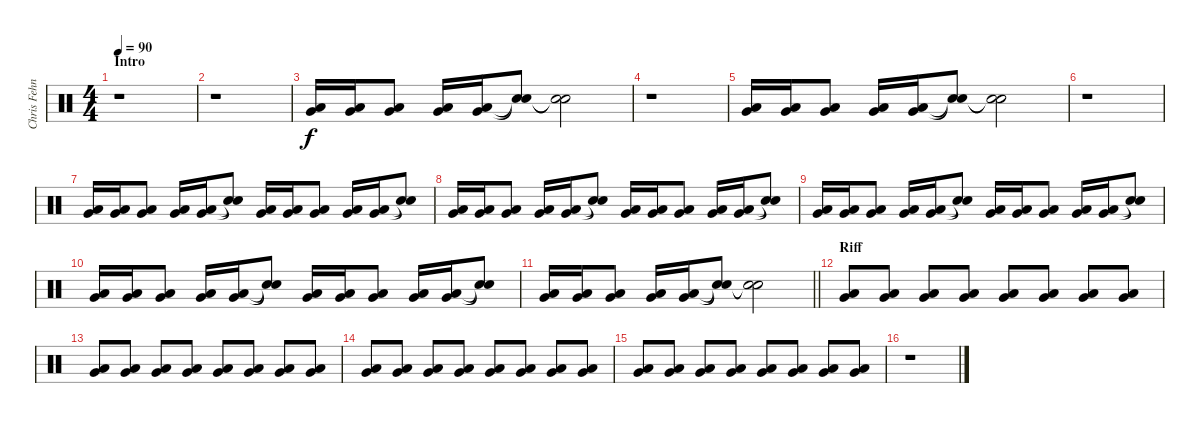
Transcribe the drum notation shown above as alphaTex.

\track ("Chris Fehn" "Chris Fehn") {instrument percussion}
\staff {score}
\articulation defaults
\ts (4 4)
\section ("" "Intro ")
\tempo 90
\clef neutral
\ks c
r.1{dy f} |
r.1 |
("Very Low Tom (hit)" "Low Floor Tom (hit)").16 ("Very Low Tom (hit)" "Low Floor Tom (hit)").16 ("Very Low Tom (hit)" "Low Floor Tom (hit)").8 ("Very Low Tom (hit)" "Low Floor Tom (hit)").16 ("Very Low Tom (hit)" "Low Floor Tom (hit)").16 ("Snare (hit)"{t} "Snare (hit)"{t}).8 ("Snare (hit)"{t} "Snare (hit)"{t}).2 |
r.1 |
("Very Low Tom (hit)" "Low Floor Tom (hit)").16 ("Very Low Tom (hit)" "Low Floor Tom (hit)").16 ("Very Low Tom (hit)" "Low Floor Tom (hit)").8 ("Very Low Tom (hit)" "Low Floor Tom (hit)").16 ("Very Low Tom (hit)" "Low Floor Tom (hit)").16 ("Snare (hit)"{t} "Snare (hit)"{t}).8 ("Snare (hit)"{t} "Snare (hit)"{t}).2 |
r.1 |
("Very Low Tom (hit)" "Low Floor Tom (hit)").16 ("Very Low Tom (hit)" "Low Floor Tom (hit)").16 ("Very Low Tom (hit)" "Low Floor Tom (hit)").8 ("Very Low Tom (hit)" "Low Floor Tom (hit)").16 ("Very Low Tom (hit)" "Low Floor Tom (hit)").16 ("Snare (hit)"{t} "Snare (hit)"{t}).8 ("Very Low Tom (hit)" "Low Floor Tom (hit)").16 ("Very Low Tom (hit)" "Low Floor Tom (hit)").16 ("Very Low Tom (hit)" "Low Floor Tom (hit)").8 ("Very Low Tom (hit)" "Low Floor Tom (hit)").16 ("Very Low Tom (hit)" "Low Floor Tom (hit)").16 ("Snare (hit)"{t} "Snare (hit)"{t}).8 |
("Very Low Tom (hit)" "Low Floor Tom (hit)").16 ("Very Low Tom (hit)" "Low Floor Tom (hit)").16 ("Very Low Tom (hit)" "Low Floor Tom (hit)").8 ("Very Low Tom (hit)" "Low Floor Tom (hit)").16 ("Very Low Tom (hit)" "Low Floor Tom (hit)").16 ("Snare (hit)"{t} "Snare (hit)"{t}).8 ("Very Low Tom (hit)" "Low Floor Tom (hit)").16 ("Very Low Tom (hit)" "Low Floor Tom (hit)").16 ("Very Low Tom (hit)" "Low Floor Tom (hit)").8 ("Very Low Tom (hit)" "Low Floor Tom (hit)").16 ("Very Low Tom (hit)" "Low Floor Tom (hit)").16 ("Snare (hit)"{t} "Snare (hit)"{t}).8 |
("Very Low Tom (hit)" "Low Floor Tom (hit)").16 ("Very Low Tom (hit)" "Low Floor Tom (hit)").16 ("Very Low Tom (hit)" "Low Floor Tom (hit)").8 ("Very Low Tom (hit)" "Low Floor Tom (hit)").16 ("Very Low Tom (hit)" "Low Floor Tom (hit)").16 ("Snare (hit)"{t} "Snare (hit)"{t}).8 ("Very Low Tom (hit)" "Low Floor Tom (hit)").16 ("Very Low Tom (hit)" "Low Floor Tom (hit)").16 ("Very Low Tom (hit)" "Low Floor Tom (hit)").8 ("Very Low Tom (hit)" "Low Floor Tom (hit)").16 ("Very Low Tom (hit)" "Low Floor Tom (hit)").16 ("Snare (hit)"{t} "Snare (hit)"{t}).8 |
("Very Low Tom (hit)" "Low Floor Tom (hit)").16 ("Very Low Tom (hit)" "Low Floor Tom (hit)").16 ("Very Low Tom (hit)" "Low Floor Tom (hit)").8 ("Very Low Tom (hit)" "Low Floor Tom (hit)").16 ("Very Low Tom (hit)" "Low Floor Tom (hit)").16 ("Snare (hit)"{t} "Snare (hit)"{t}).8 ("Very Low Tom (hit)" "Low Floor Tom (hit)").16 ("Very Low Tom (hit)" "Low Floor Tom (hit)").16 ("Very Low Tom (hit)" "Low Floor Tom (hit)").8 ("Very Low Tom (hit)" "Low Floor Tom (hit)").16 ("Very Low Tom (hit)" "Low Floor Tom (hit)").16 ("Snare (hit)"{t} "Snare (hit)"{t}).8 |
\barLineRight lightlight
("Very Low Tom (hit)" "Low Floor Tom (hit)").16 ("Very Low Tom (hit)" "Low Floor Tom (hit)").16 ("Very Low Tom (hit)" "Low Floor Tom (hit)").8 ("Very Low Tom (hit)" "Low Floor Tom (hit)").16 ("Very Low Tom (hit)" "Low Floor Tom (hit)").16 ("Snare (hit)"{t} "Snare (hit)"{t}).8 ("Snare (hit)"{t} "Snare (hit)"{t}).2 |
\section ("" "Riff")
("Very Low Tom (hit)" "Low Floor Tom (hit)").8 ("Very Low Tom (hit)" "Low Floor Tom (hit)").8 ("Very Low Tom (hit)" "Low Floor Tom (hit)").8 ("Very Low Tom (hit)" "Low Floor Tom (hit)").8 ("Very Low Tom (hit)" "Low Floor Tom (hit)").8 ("Very Low Tom (hit)" "Low Floor Tom (hit)").8 ("Very Low Tom (hit)" "Low Floor Tom (hit)").8 ("Very Low Tom (hit)" "Low Floor Tom (hit)").8 |
("Very Low Tom (hit)" "Low Floor Tom (hit)").8 ("Very Low Tom (hit)" "Low Floor Tom (hit)").8 ("Very Low Tom (hit)" "Low Floor Tom (hit)").8 ("Very Low Tom (hit)" "Low Floor Tom (hit)").8 ("Very Low Tom (hit)" "Low Floor Tom (hit)").8 ("Very Low Tom (hit)" "Low Floor Tom (hit)").8 ("Very Low Tom (hit)" "Low Floor Tom (hit)").8 ("Very Low Tom (hit)" "Low Floor Tom (hit)").8 |
("Very Low Tom (hit)" "Low Floor Tom (hit)").8 ("Very Low Tom (hit)" "Low Floor Tom (hit)").8 ("Very Low Tom (hit)" "Low Floor Tom (hit)").8 ("Very Low Tom (hit)" "Low Floor Tom (hit)").8 ("Very Low Tom (hit)" "Low Floor Tom (hit)").8 ("Very Low Tom (hit)" "Low Floor Tom (hit)").8 ("Very Low Tom (hit)" "Low Floor Tom (hit)").8 ("Very Low Tom (hit)" "Low Floor Tom (hit)").8 |
("Very Low Tom (hit)" "Low Floor Tom (hit)").8 ("Very Low Tom (hit)" "Low Floor Tom (hit)").8 ("Very Low Tom (hit)" "Low Floor Tom (hit)").8 ("Very Low Tom (hit)" "Low Floor Tom (hit)").8 ("Very Low Tom (hit)" "Low Floor Tom (hit)").8 ("Very Low Tom (hit)" "Low Floor Tom (hit)").8 ("Very Low Tom (hit)" "Low Floor Tom (hit)").8 ("Very Low Tom (hit)" "Low Floor Tom (hit)").8 |
r.1
